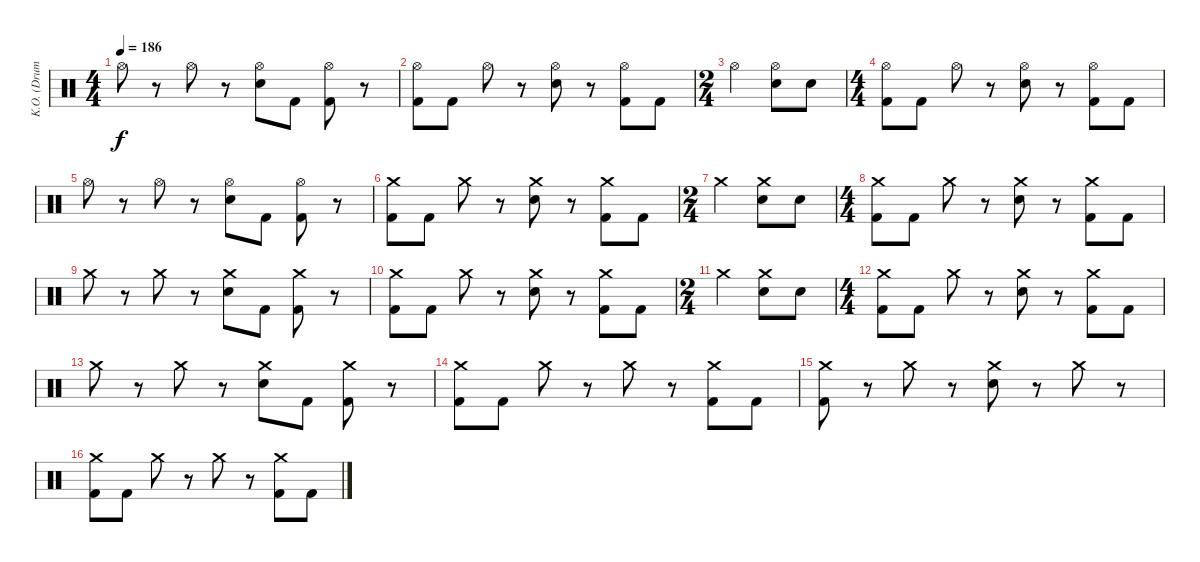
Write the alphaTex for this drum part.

\track ("K.O. (Drums)" "K.O. (Drum") {instrument percussion}
\staff {score}
\articulation defaults
\ts (4 4)
\tempo 186
\clef neutral
\ks c "Hi-Hat (open)".8{dy f}
r.8 "Hi-Hat (open)".8 r.8 ("Hi-Hat (open)" "Electric Snare (hit)").8 "Kick (hit) 2".8 ("Hi-Hat (open)" "Kick (hit) 2").8 r.8 |
("Hi-Hat (open)" "Kick (hit) 2").8 "Kick (hit) 2".8 "Hi-Hat (open)".8 r.8 ("Hi-Hat (open)" "Electric Snare (hit)").8 r.8 ("Hi-Hat (open)" "Kick (hit) 2").8 "Kick (hit) 2".8 |
\ts (2 4)
"Hi-Hat (open)".4 ("Hi-Hat (open)" "Electric Snare (hit)").8 "Electric Snare (hit)".8 |
\ts (4 4)
("Hi-Hat (open)" "Kick (hit) 2").8 "Kick (hit) 2".8 "Hi-Hat (open)".8 r.8 ("Hi-Hat (open)" "Electric Snare (hit)").8 r.8 ("Hi-Hat (open)" "Kick (hit) 2").8 "Kick (hit) 2".8 |
"Hi-Hat (open)".8 r.8 "Hi-Hat (open)".8 r.8 ("Hi-Hat (open)" "Electric Snare (hit)").8 "Kick (hit) 2".8 ("Hi-Hat (open)" "Kick (hit) 2").8 r.8 |
("Crash medium (hit)" "Kick (hit) 2").8 "Kick (hit) 2".8 "Crash medium (hit)".8 r.8 ("Crash medium (hit)" "Electric Snare (hit)").8 r.8 ("Crash medium (hit)" "Kick (hit) 2").8 "Kick (hit) 2".8 |
\ts (2 4)
"Crash medium (hit)".4 ("Crash medium (hit)" "Electric Snare (hit)").8 "Electric Snare (hit)".8 |
\ts (4 4)
("Crash medium (hit)" "Kick (hit) 2").8 "Kick (hit) 2".8 "Crash medium (hit)".8 r.8 ("Crash medium (hit)" "Electric Snare (hit)").8 r.8 ("Crash medium (hit)" "Kick (hit) 2").8 "Kick (hit) 2".8 |
"Crash medium (hit)".8 r.8 "Crash medium (hit)".8 r.8 ("Crash medium (hit)" "Electric Snare (hit)").8 "Kick (hit) 2".8 ("Crash medium (hit)" "Kick (hit) 2").8 r.8 |
("Crash medium (hit)" "Kick (hit) 2").8 "Kick (hit) 2".8 "Crash medium (hit)".8 r.8 ("Crash medium (hit)" "Electric Snare (hit)").8 r.8 ("Crash medium (hit)" "Kick (hit) 2").8 "Kick (hit) 2".8 |
\ts (2 4)
"Crash medium (hit)".4 ("Crash medium (hit)" "Electric Snare (hit)").8 "Electric Snare (hit)".8 |
\ts (4 4)
("Crash medium (hit)" "Kick (hit) 2").8 "Kick (hit) 2".8 "Crash medium (hit)".8 r.8 ("Crash medium (hit)" "Electric Snare (hit)").8 r.8 ("Crash medium (hit)" "Kick (hit) 2").8 "Kick (hit) 2".8 |
"Crash medium (hit)".8 r.8 "Crash medium (hit)".8 r.8 ("Crash medium (hit)" "Electric Snare (hit)").8 "Kick (hit) 2".8 ("Crash medium (hit)" "Kick (hit) 2").8 r.8 |
("Crash medium (hit)" "Kick (hit) 2").8 "Kick (hit) 2".8 "Crash medium (hit)".8 r.8 "Crash medium (hit)".8 r.8 ("Crash medium (hit)" "Kick (hit) 2").8 "Kick (hit) 2".8 |
("Crash medium (hit)" "Kick (hit) 2").8 r.8 "Crash medium (hit)".8 r.8 ("Crash medium (hit)" "Electric Snare (hit)").8 r.8 "Crash medium (hit)".8 r.8 |
("Crash medium (hit)" "Kick (hit) 2").8 "Kick (hit) 2".8 "Crash medium (hit)".8 r.8 "Crash medium (hit)".8 r.8 ("Crash medium (hit)" "Kick (hit) 2").8 "Kick (hit) 2".8
